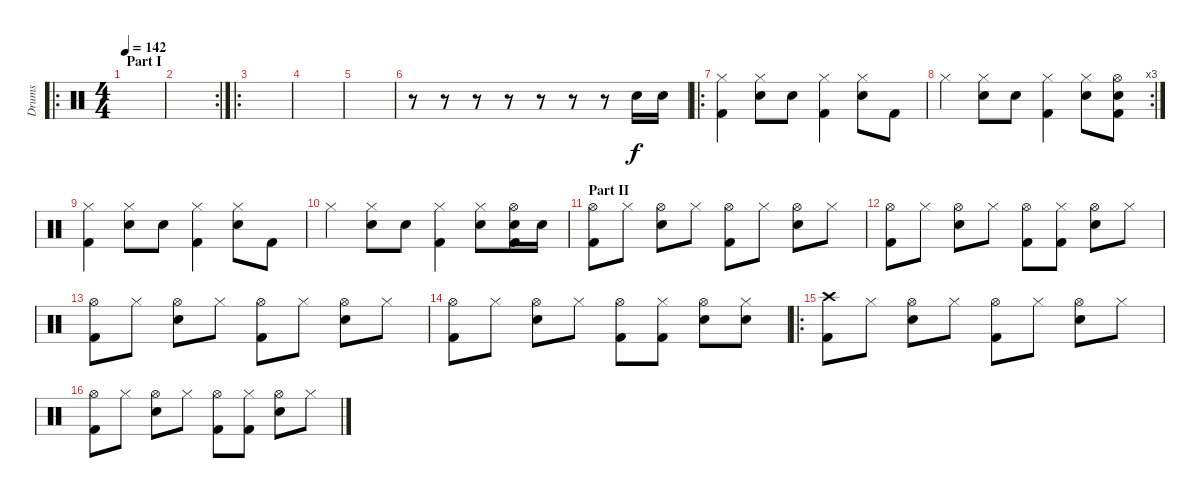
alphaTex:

\track ("Drums" "Drums") {instrument percussion}
\staff {score}
\articulation defaults
\ro
\ts (4 4)
\section ("" "Part I")
\tempo 142
\clef neutral
\ks c
|
\rc 2
|
\ro
|
|
|
r.8 r.8 r.8 r.8 r.8 r.8 r.8 "Electric Snare (hit)".16 "Electric Snare (hit)".16 |
\ro
("Hi-Hat (closed)" "Kick (hit) 2").4 ("Hi-Hat (closed)" "Electric Snare (hit)").8 "Electric Snare (hit)".8 ("Hi-Hat (closed)" "Kick (hit) 2").4 ("Hi-Hat (closed)" "Electric Snare (hit)").8 "Kick (hit) 2".8 |
\rc 3 "Hi-Hat (closed)".4
("Hi-Hat (closed)" "Electric Snare (hit)").8 "Electric Snare (hit)".8 ("Hi-Hat (closed)" "Kick (hit) 2").4 ("Hi-Hat (closed)" "Electric Snare (hit)").8 ("Hi-Hat (open)" "Electric Snare (hit)" "Kick (hit) 2").8 |
("Hi-Hat (closed)" "Kick (hit) 2").4 ("Hi-Hat (closed)" "Electric Snare (hit)").8 "Electric Snare (hit)".8 ("Hi-Hat (closed)" "Kick (hit) 2").4 ("Hi-Hat (closed)" "Electric Snare (hit)").8 "Kick (hit) 2".8 |
"Hi-Hat (closed)".4 ("Hi-Hat (closed)" "Electric Snare (hit)").8 "Electric Snare (hit)".8 ("Hi-Hat (closed)" "Kick (hit) 2").4 ("Hi-Hat (closed)" "Electric Snare (hit)").8 ("Hi-Hat (open)" "Electric Snare (hit)" "Kick (hit) 2").16 "Electric Snare (hit)".16 |
\section ("" "Part II")
("Hi-Hat (open)" "Kick (hit) 2").8 "Hi-Hat (closed)".8 ("Hi-Hat (open)" "Electric Snare (hit)").8 "Hi-Hat (closed)".8 ("Hi-Hat (open)" "Kick (hit) 2").8 "Hi-Hat (closed)".8 ("Hi-Hat (open)" "Electric Snare (hit)").8 "Hi-Hat (closed)".8 |
("Hi-Hat (open)" "Kick (hit) 2").8 "Hi-Hat (closed)".8 ("Hi-Hat (open)" "Electric Snare (hit)").8 "Hi-Hat (closed)".8 ("Hi-Hat (open)" "Kick (hit) 2").8 ("Hi-Hat (closed)" "Kick (hit) 2").8 ("Hi-Hat (open)" "Electric Snare (hit)").8 "Hi-Hat (closed)".8 |
("Hi-Hat (open)" "Kick (hit) 2").8 "Hi-Hat (closed)".8 ("Hi-Hat (open)" "Electric Snare (hit)").8 "Hi-Hat (closed)".8 ("Hi-Hat (open)" "Kick (hit) 2").8 "Hi-Hat (closed)".8 ("Hi-Hat (open)" "Electric Snare (hit)").8 "Hi-Hat (closed)".8 |
("Hi-Hat (open)" "Kick (hit) 2").8 "Hi-Hat (closed)".8 ("Hi-Hat (open)" "Electric Snare (hit)").8 "Hi-Hat (closed)".8 ("Hi-Hat (open)" "Kick (hit) 2").8 ("Hi-Hat (closed)" "Kick (hit) 2").8 ("Hi-Hat (open)" "Electric Snare (hit)").8 ("Hi-Hat (closed)" "Electric Snare (hit)").8 |
\ro
("Crash high (hit)" "Kick (hit) 2").8 "Hi-Hat (closed)".8 ("Hi-Hat (open)" "Electric Snare (hit)").8 "Hi-Hat (closed)".8 ("Hi-Hat (open)" "Kick (hit) 2").8 "Hi-Hat (closed)".8 ("Hi-Hat (open)" "Electric Snare (hit)").8 "Hi-Hat (closed)".8 |
("Hi-Hat (open)" "Kick (hit) 2").8 "Hi-Hat (closed)".8 ("Hi-Hat (open)" "Electric Snare (hit)").8 "Hi-Hat (closed)".8 ("Hi-Hat (open)" "Kick (hit) 2").8 ("Hi-Hat (closed)" "Kick (hit) 2").8 ("Hi-Hat (open)" "Electric Snare (hit)").8 "Hi-Hat (closed)".8
